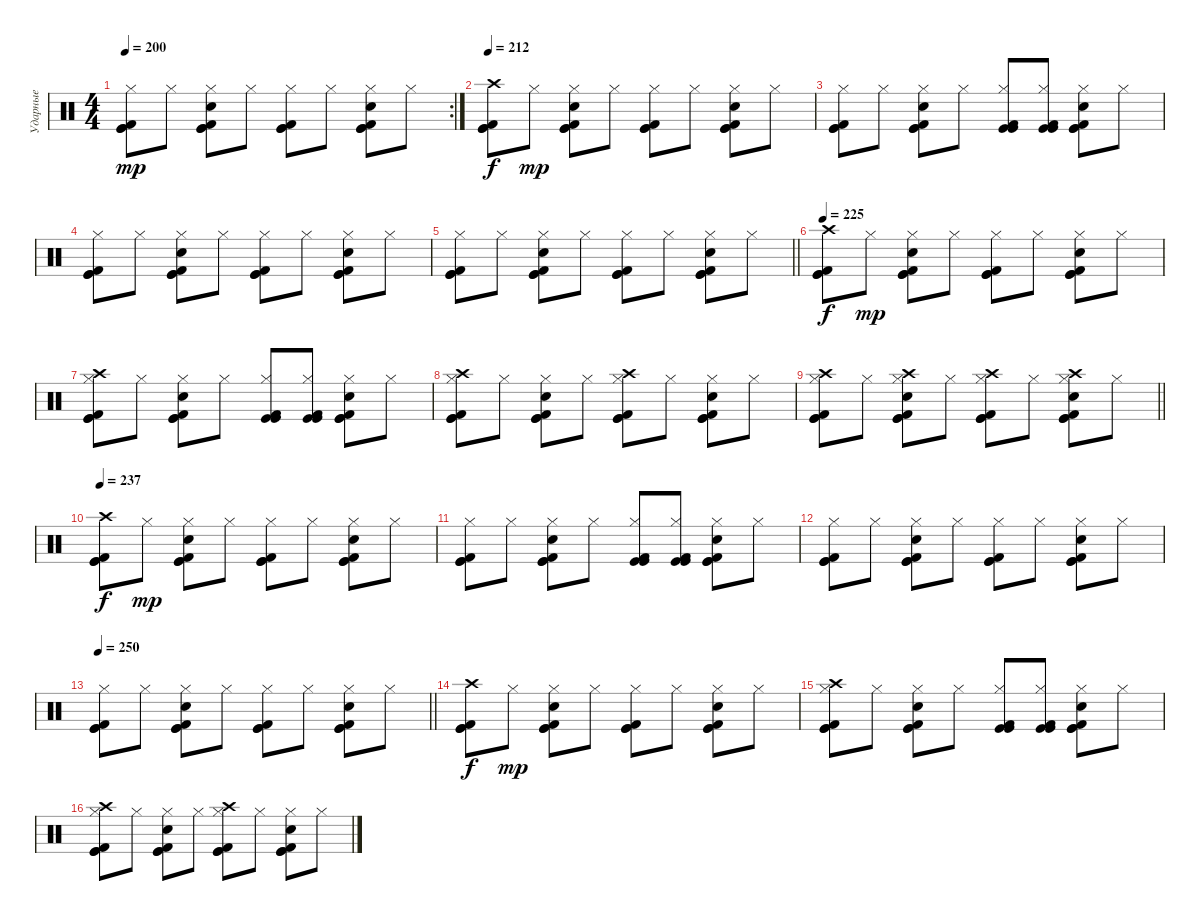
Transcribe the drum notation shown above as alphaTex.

\track ("Ударные" "Ударные") {instrument percussion}
\staff {score}
\articulation defaults
\rc 2
\ts (4 4)
\tempo 200
\clef neutral
\ks c
("Kick (hit)" "Kick (hit)" "Hi-Hat (closed)" "Kick (hit) 2").8{dy mp} "Hi-Hat (closed)".8 ("Kick (hit)" "Kick (hit)" "Hi-Hat (closed)" "Hand Clap (hit)" "Kick (hit) 2").8 "Hi-Hat (closed)".8 ("Kick (hit)" "Kick (hit)" "Hi-Hat (closed)" "Kick (hit) 2").8 "Hi-Hat (closed)".8 ("Kick (hit)" "Kick (hit)" "Hi-Hat (closed)" "Hand Clap (hit)" "Kick (hit) 2").8 "Hi-Hat (closed)".8 |
\tempo 212
("Kick (hit)" "Kick (hit)" "Crash high (hit)" "Kick (hit) 2").8{dy f} "Hi-Hat (closed)".8{dy mp} ("Kick (hit)" "Kick (hit)" "Hi-Hat (closed)" "Hand Clap (hit)" "Kick (hit) 2").8 "Hi-Hat (closed)".8 ("Kick (hit)" "Kick (hit)" "Hi-Hat (closed)" "Kick (hit) 2").8 "Hi-Hat (closed)".8 ("Kick (hit)" "Kick (hit)" "Hi-Hat (closed)" "Hand Clap (hit)" "Kick (hit) 2").8 "Hi-Hat (closed)".8 |
("Kick (hit)" "Kick (hit)" "Hi-Hat (closed)" "Kick (hit) 2").8 "Hi-Hat (closed)".8 ("Kick (hit)" "Kick (hit)" "Hi-Hat (closed)" "Hand Clap (hit)" "Kick (hit) 2").8 "Hi-Hat (closed)".8 ("Kick (hit)" "Kick (hit)" "Hi-Hat (closed)" "Kick (hit) 2").8 ("Kick (hit)" "Kick (hit)" "Hi-Hat (closed)" "Kick (hit) 2").8 ("Kick (hit)" "Kick (hit)" "Hi-Hat (closed)" "Hand Clap (hit)" "Kick (hit) 2").8 "Hi-Hat (closed)".8 |
("Kick (hit)" "Kick (hit)" "Hi-Hat (closed)" "Kick (hit) 2").8 "Hi-Hat (closed)".8 ("Kick (hit)" "Kick (hit)" "Hi-Hat (closed)" "Hand Clap (hit)" "Kick (hit) 2").8 "Hi-Hat (closed)".8 ("Kick (hit)" "Kick (hit)" "Hi-Hat (closed)" "Kick (hit) 2").8 "Hi-Hat (closed)".8 ("Kick (hit)" "Kick (hit)" "Hi-Hat (closed)" "Hand Clap (hit)" "Kick (hit) 2").8 "Hi-Hat (closed)".8 |
\barLineRight lightlight
("Kick (hit)" "Kick (hit)" "Hi-Hat (closed)" "Kick (hit) 2").8 "Hi-Hat (closed)".8 ("Kick (hit)" "Kick (hit)" "Hi-Hat (closed)" "Hand Clap (hit)" "Kick (hit) 2").8 "Hi-Hat (closed)".8 ("Kick (hit)" "Kick (hit)" "Hi-Hat (closed)" "Kick (hit) 2").8 "Hi-Hat (closed)".8 ("Kick (hit)" "Kick (hit)" "Hi-Hat (closed)" "Hand Clap (hit)" "Kick (hit) 2").8 "Hi-Hat (closed)".8 |
\tempo 225
("Kick (hit)" "Kick (hit)" "Crash high (hit)" "Kick (hit) 2").8{dy f} "Hi-Hat (closed)".8{dy mp} ("Kick (hit)" "Kick (hit)" "Hi-Hat (closed)" "Hand Clap (hit)" "Kick (hit) 2").8 "Hi-Hat (closed)".8 ("Kick (hit)" "Kick (hit)" "Hi-Hat (closed)" "Kick (hit) 2").8 "Hi-Hat (closed)".8 ("Kick (hit)" "Kick (hit)" "Hi-Hat (closed)" "Hand Clap (hit)" "Kick (hit) 2").8 "Hi-Hat (closed)".8 |
("Kick (hit)" "Kick (hit)" "Hi-Hat (closed)" "Crash high (hit)" "Kick (hit) 2").8 "Hi-Hat (closed)".8 ("Kick (hit)" "Kick (hit)" "Hi-Hat (closed)" "Hand Clap (hit)" "Kick (hit) 2").8 "Hi-Hat (closed)".8 ("Kick (hit)" "Kick (hit)" "Hi-Hat (closed)" "Kick (hit) 2").8 ("Kick (hit)" "Kick (hit)" "Hi-Hat (closed)" "Kick (hit) 2").8 ("Kick (hit)" "Kick (hit)" "Hi-Hat (closed)" "Hand Clap (hit)" "Kick (hit) 2").8 "Hi-Hat (closed)".8 |
("Kick (hit)" "Kick (hit)" "Hi-Hat (closed)" "Crash high (hit)" "Kick (hit) 2").8 "Hi-Hat (closed)".8 ("Kick (hit)" "Kick (hit)" "Hi-Hat (closed)" "Hand Clap (hit)" "Kick (hit) 2").8 "Hi-Hat (closed)".8 ("Kick (hit)" "Kick (hit)" "Hi-Hat (closed)" "Crash high (hit)" "Kick (hit) 2").8 "Hi-Hat (closed)".8 ("Kick (hit)" "Kick (hit)" "Hi-Hat (closed)" "Hand Clap (hit)" "Kick (hit) 2").8 "Hi-Hat (closed)".8 |
\barLineRight lightlight
("Kick (hit)" "Kick (hit)" "Hi-Hat (closed)" "Crash high (hit)" "Kick (hit) 2").8 "Hi-Hat (closed)".8 ("Kick (hit)" "Kick (hit)" "Hi-Hat (closed)" "Crash high (hit)" "Hand Clap (hit)" "Kick (hit) 2").8 "Hi-Hat (closed)".8 ("Kick (hit)" "Kick (hit)" "Hi-Hat (closed)" "Crash high (hit)" "Kick (hit) 2").8 "Hi-Hat (closed)".8 ("Kick (hit)" "Kick (hit)" "Hi-Hat (closed)" "Crash high (hit)" "Hand Clap (hit)" "Kick (hit) 2").8 "Hi-Hat (closed)".8 |
\tempo 237
("Kick (hit)" "Kick (hit)" "Crash high (hit)" "Kick (hit) 2").8{dy f} "Hi-Hat (closed)".8{dy mp} ("Kick (hit)" "Kick (hit)" "Hi-Hat (closed)" "Hand Clap (hit)" "Kick (hit) 2").8 "Hi-Hat (closed)".8 ("Kick (hit)" "Kick (hit)" "Hi-Hat (closed)" "Kick (hit) 2").8 "Hi-Hat (closed)".8 ("Kick (hit)" "Kick (hit)" "Hi-Hat (closed)" "Hand Clap (hit)" "Kick (hit) 2").8 "Hi-Hat (closed)".8 |
("Kick (hit)" "Kick (hit)" "Hi-Hat (closed)" "Kick (hit) 2").8 "Hi-Hat (closed)".8 ("Kick (hit)" "Kick (hit)" "Hi-Hat (closed)" "Hand Clap (hit)" "Kick (hit) 2").8 "Hi-Hat (closed)".8 ("Kick (hit)" "Kick (hit)" "Hi-Hat (closed)" "Kick (hit) 2").8 ("Kick (hit)" "Kick (hit)" "Hi-Hat (closed)" "Kick (hit) 2").8 ("Kick (hit)" "Kick (hit)" "Hi-Hat (closed)" "Hand Clap (hit)" "Kick (hit) 2").8 "Hi-Hat (closed)".8 |
("Kick (hit)" "Kick (hit)" "Hi-Hat (closed)" "Kick (hit) 2").8 "Hi-Hat (closed)".8 ("Kick (hit)" "Kick (hit)" "Hi-Hat (closed)" "Hand Clap (hit)" "Kick (hit) 2").8 "Hi-Hat (closed)".8 ("Kick (hit)" "Kick (hit)" "Hi-Hat (closed)" "Kick (hit) 2").8 "Hi-Hat (closed)".8 ("Kick (hit)" "Kick (hit)" "Hi-Hat (closed)" "Hand Clap (hit)" "Kick (hit) 2").8 "Hi-Hat (closed)".8 |
\tempo 250
\barLineRight lightlight
("Kick (hit)" "Kick (hit)" "Hi-Hat (closed)" "Kick (hit) 2").8 "Hi-Hat (closed)".8 ("Kick (hit)" "Kick (hit)" "Hi-Hat (closed)" "Hand Clap (hit)" "Kick (hit) 2").8 "Hi-Hat (closed)".8 ("Kick (hit)" "Kick (hit)" "Hi-Hat (closed)" "Kick (hit) 2").8 "Hi-Hat (closed)".8 ("Kick (hit)" "Kick (hit)" "Hi-Hat (closed)" "Hand Clap (hit)" "Kick (hit) 2").8 "Hi-Hat (closed)".8 |
("Kick (hit)" "Kick (hit)" "Crash high (hit)" "Kick (hit) 2").8{dy f} "Hi-Hat (closed)".8{dy mp} ("Kick (hit)" "Kick (hit)" "Hi-Hat (closed)" "Hand Clap (hit)" "Kick (hit) 2").8 "Hi-Hat (closed)".8 ("Kick (hit)" "Kick (hit)" "Hi-Hat (closed)" "Kick (hit) 2").8 "Hi-Hat (closed)".8 ("Kick (hit)" "Kick (hit)" "Hi-Hat (closed)" "Hand Clap (hit)" "Kick (hit) 2").8 "Hi-Hat (closed)".8 |
("Kick (hit)" "Kick (hit)" "Hi-Hat (closed)" "Crash high (hit)" "Kick (hit) 2").8 "Hi-Hat (closed)".8 ("Kick (hit)" "Kick (hit)" "Hi-Hat (closed)" "Hand Clap (hit)" "Kick (hit) 2").8 "Hi-Hat (closed)".8 ("Kick (hit)" "Kick (hit)" "Hi-Hat (closed)" "Kick (hit) 2").8 ("Kick (hit)" "Kick (hit)" "Hi-Hat (closed)" "Kick (hit) 2").8 ("Kick (hit)" "Kick (hit)" "Hi-Hat (closed)" "Hand Clap (hit)" "Kick (hit) 2").8 "Hi-Hat (closed)".8 |
("Kick (hit)" "Kick (hit)" "Hi-Hat (closed)" "Crash high (hit)" "Kick (hit) 2").8 "Hi-Hat (closed)".8 ("Kick (hit)" "Kick (hit)" "Hi-Hat (closed)" "Hand Clap (hit)" "Kick (hit) 2").8 "Hi-Hat (closed)".8 ("Kick (hit)" "Kick (hit)" "Hi-Hat (closed)" "Crash high (hit)" "Kick (hit) 2").8 "Hi-Hat (closed)".8 ("Kick (hit)" "Kick (hit)" "Hi-Hat (closed)" "Hand Clap (hit)" "Kick (hit) 2").8 "Hi-Hat (closed)".8
